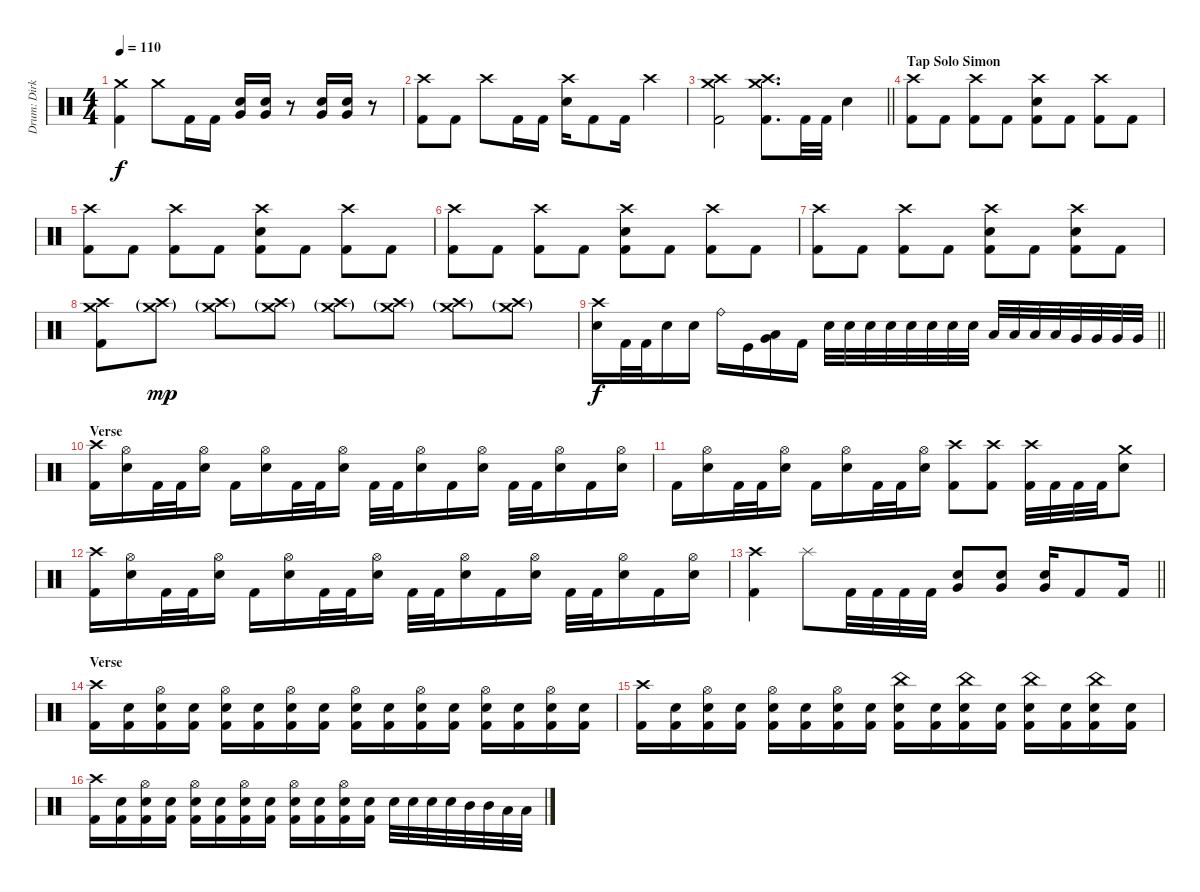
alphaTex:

\track ("Drum: Dirk" "Drum: Dirk") {instrument percussion}
\staff {score}
\articulation defaults
\ts (4 4)
\tempo 110
\clef neutral
\ks c
("Crash medium (hit)" "Kick (hit) 2").4{dy f} "Crash medium (hit)".8 "Kick (hit) 2".16 "Kick (hit) 2".16 ("Electric Snare (hit)" "Very Low Tom (hit)").16 ("Electric Snare (hit)" "Very Low Tom (hit)").16 r.8 ("Electric Snare (hit)" "Very Low Tom (hit)").16 ("Electric Snare (hit)" "Very Low Tom (hit)").16 r.8 |
("Crash high (hit)" "Kick (hit) 2").8 "Kick (hit) 2".8 "Crash high (hit)".8 "Kick (hit) 2".16 "Kick (hit) 2".16 ("Crash high (hit)" "Electric Snare (hit)").16 "Kick (hit) 2".8 "Kick (hit) 2".16 "Crash high (hit)".4 |
\barLineRight lightlight
("Crash medium (hit)" "Crash high (hit)" "Kick (hit) 2").2 ("Crash medium (hit)" "Crash high (hit)" "Kick (hit) 2").8{d} "Kick (hit) 2".32 "Kick (hit) 2".32 "Electric Snare (hit)".4 |
\section ("" "Tap Solo Simon")
("Crash high (hit)" "Kick (hit) 2").8 "Kick (hit) 2".8 ("Crash high (hit)" "Kick (hit) 2").8 "Kick (hit) 2".8 ("Crash high (hit)" "Electric Snare (hit)" "Kick (hit) 2").8 "Kick (hit) 2".8 ("Crash high (hit)" "Kick (hit) 2").8 "Kick (hit) 2".8 |
("Crash high (hit)" "Kick (hit) 2").8 "Kick (hit) 2".8 ("Crash high (hit)" "Kick (hit) 2").8 "Kick (hit) 2".8 ("Crash high (hit)" "Electric Snare (hit)" "Kick (hit) 2").8 "Kick (hit) 2".8 ("Crash high (hit)" "Kick (hit) 2").8 "Kick (hit) 2".8 |
("Crash high (hit)" "Kick (hit) 2").8 "Kick (hit) 2".8 ("Crash high (hit)" "Kick (hit) 2").8 "Kick (hit) 2".8 ("Crash high (hit)" "Electric Snare (hit)" "Kick (hit) 2").8 "Kick (hit) 2".8 ("Crash high (hit)" "Kick (hit) 2").8 "Kick (hit) 2".8 |
("Crash high (hit)" "Kick (hit) 2").8 "Kick (hit) 2".8 ("Crash high (hit)" "Kick (hit) 2").8 "Kick (hit) 2".8 ("Crash high (hit)" "Electric Snare (hit)" "Kick (hit) 2").8 "Kick (hit) 2".8 ("Crash high (hit)" "Electric Snare (hit)" "Kick (hit) 2").8 "Kick (hit) 2".8 |
("Crash medium (hit)" "Crash high (hit)" "Kick (hit) 2").8 ("Crash medium (hit)"{g} "Crash high (hit)"{g}).8{dy mp} ("Crash medium (hit)"{g} "Crash high (hit)"{g}).8 ("Crash medium (hit)"{g} "Crash high (hit)"{g}).8 ("Crash medium (hit)"{g} "Crash high (hit)"{g}).8 ("Crash medium (hit)"{g} "Crash high (hit)"{g}).8 ("Crash medium (hit)"{g} "Crash high (hit)"{g}).8 ("Crash medium (hit)"{g} "Crash high (hit)"{g}).8 |
\barLineRight lightlight
("Crash high (hit)" "Electric Snare (hit)").16{dy f} "Kick (hit) 2".32 "Kick (hit) 2".32 "Electric Snare (hit)".16 "Electric Snare (hit)".16 "Ride (bell)".16 "Kick (hit)".16 ("Low Tom (hit)" "Very Low Tom (hit)").16 "Kick (hit) 2".16 "Electric Snare (hit)".32 "Electric Snare (hit)".32 "Electric Snare (hit)".32 "Electric Snare (hit)".32 "Electric Snare (hit)".32 "Electric Snare (hit)".32 "Electric Snare (hit)".32 "Electric Snare (hit)".32 "Low Tom (hit)".32 "Low Tom (hit)".32 "Low Tom (hit)".32 "Low Tom (hit)".32 "Very Low Tom (hit)".32 "Very Low Tom (hit)".32 "Very Low Tom (hit)".32 "Very Low Tom (hit)".32 |
\section ("" "Verse")
("Crash high (hit)" "Kick (hit) 2").16 ("Hi-Hat (open)" "Electric Snare (hit)").16 "Kick (hit) 2".32 "Kick (hit) 2".32 ("Hi-Hat (open)" "Electric Snare (hit)").16 "Kick (hit) 2".16 ("Hi-Hat (open)" "Electric Snare (hit)").16 "Kick (hit) 2".32 "Kick (hit) 2".32 ("Hi-Hat (open)" "Electric Snare (hit)").16 "Kick (hit) 2".32 "Kick (hit) 2".32 ("Hi-Hat (open)" "Electric Snare (hit)").16 "Kick (hit) 2".16 ("Hi-Hat (open)" "Electric Snare (hit)").16 "Kick (hit) 2".32 "Kick (hit) 2".32 ("Hi-Hat (open)" "Electric Snare (hit)").16 "Kick (hit) 2".16 ("Hi-Hat (open)" "Electric Snare (hit)").16 |
"Kick (hit) 2".16 ("Hi-Hat (open)" "Electric Snare (hit)").16 "Kick (hit) 2".32 "Kick (hit) 2".32 ("Hi-Hat (open)" "Electric Snare (hit)").16 "Kick (hit) 2".16 ("Hi-Hat (open)" "Electric Snare (hit)").16 "Kick (hit) 2".32 "Kick (hit) 2".32 ("Hi-Hat (open)" "Electric Snare (hit)").16 ("Crash high (hit)" "Kick (hit) 2").8 ("Crash high (hit)" "Kick (hit) 2").8 ("Crash high (hit)" "Kick (hit) 2").32 "Kick (hit) 2".32 "Kick (hit) 2".32 "Kick (hit) 2".32 ("Crash medium (hit)" "Electric Snare (hit)").8 |
("Crash high (hit)" "Kick (hit) 2").16 ("Hi-Hat (open)" "Electric Snare (hit)").16 "Kick (hit) 2".32 "Kick (hit) 2".32 ("Hi-Hat (open)" "Electric Snare (hit)").16 "Kick (hit) 2".16 ("Hi-Hat (open)" "Electric Snare (hit)").16 "Kick (hit) 2".32 "Kick (hit) 2".32 ("Hi-Hat (open)" "Electric Snare (hit)").16 "Kick (hit) 2".32 "Kick (hit) 2".32 ("Hi-Hat (open)" "Electric Snare (hit)").16 "Kick (hit) 2".16 ("Hi-Hat (open)" "Electric Snare (hit)").16 "Kick (hit) 2".32 "Kick (hit) 2".32 ("Hi-Hat (open)" "Electric Snare (hit)").16 "Kick (hit) 2".16 ("Hi-Hat (open)" "Electric Snare (hit)").16 |
\barLineRight lightlight
("Crash high (hit)" "Kick (hit) 2").4 "Splash (hit)".8 "Kick (hit) 2".32 "Kick (hit) 2".32 "Kick (hit) 2".32 "Kick (hit) 2".32 ("Electric Snare (hit)" "Very Low Tom (hit)").8 ("Electric Snare (hit)" "Very Low Tom (hit)").8 ("Electric Snare (hit)" "Very Low Tom (hit)").16 "Kick (hit) 2".8 "Kick (hit) 2".16 |
\section ("" "Verse ")
("Crash high (hit)" "Kick (hit) 2").16 ("Electric Snare (hit)" "Kick (hit) 2").16 ("Hi-Hat (open)" "Electric Snare (hit)" "Kick (hit) 2").16 ("Electric Snare (hit)" "Kick (hit) 2").16 ("Hi-Hat (open)" "Electric Snare (hit)" "Kick (hit) 2").16 ("Electric Snare (hit)" "Kick (hit) 2").16 ("Hi-Hat (open)" "Electric Snare (hit)" "Kick (hit) 2").16 ("Electric Snare (hit)" "Kick (hit) 2").16 ("Hi-Hat (open)" "Electric Snare (hit)" "Kick (hit) 2").16 ("Electric Snare (hit)" "Kick (hit) 2").16 ("Hi-Hat (open)" "Electric Snare (hit)" "Kick (hit) 2").16 ("Electric Snare (hit)" "Kick (hit) 2").16 ("Hi-Hat (open)" "Electric Snare (hit)" "Kick (hit) 2").16 ("Electric Snare (hit)" "Kick (hit) 2").16 ("Hi-Hat (open)" "Electric Snare (hit)" "Kick (hit) 2").16 ("Electric Snare (hit)" "Kick (hit) 2").16 |
("Crash high (hit)" "Kick (hit) 2").16 ("Electric Snare (hit)" "Kick (hit) 2").16 ("Hi-Hat (open)" "Electric Snare (hit)" "Kick (hit) 2").16 ("Electric Snare (hit)" "Kick (hit) 2").16 ("Hi-Hat (open)" "Electric Snare (hit)" "Kick (hit) 2").16 ("Electric Snare (hit)" "Kick (hit) 2").16 ("Hi-Hat (open)" "Electric Snare (hit)" "Kick (hit) 2").16 ("Electric Snare (hit)" "Kick (hit) 2").16 ("China (hit)" "Electric Snare (hit)" "Kick (hit) 2").16 ("Electric Snare (hit)" "Kick (hit) 2").16 ("China (hit)" "Electric Snare (hit)" "Kick (hit) 2").16 ("Electric Snare (hit)" "Kick (hit) 2").16 ("China (hit)" "Electric Snare (hit)" "Kick (hit) 2").16 ("Electric Snare (hit)" "Kick (hit) 2").16 ("China (hit)" "Electric Snare (hit)" "Kick (hit) 2").16 ("Electric Snare (hit)" "Kick (hit) 2").16 |
("Crash high (hit)" "Kick (hit) 2").16 ("Electric Snare (hit)" "Kick (hit) 2").16 ("Hi-Hat (open)" "Electric Snare (hit)" "Kick (hit) 2").16 ("Electric Snare (hit)" "Kick (hit) 2").16 ("Hi-Hat (open)" "Electric Snare (hit)" "Kick (hit) 2").16 ("Electric Snare (hit)" "Kick (hit) 2").16 ("Hi-Hat (open)" "Electric Snare (hit)" "Kick (hit) 2").16 ("Electric Snare (hit)" "Kick (hit) 2").16 ("Hi-Hat (open)" "Electric Snare (hit)" "Kick (hit) 2").16 ("Electric Snare (hit)" "Kick (hit) 2").16 ("Hi-Hat (open)" "Electric Snare (hit)" "Kick (hit) 2").16 ("Electric Snare (hit)" "Kick (hit) 2").16 "Electric Snare (hit)".32 "Electric Snare (hit)".32 "Electric Snare (hit)".32 "Electric Snare (hit)".32 "Mid Tom (hit)".32 "Mid Tom (hit)".32 "Low Tom (hit)".32 "Low Tom (hit)".32
